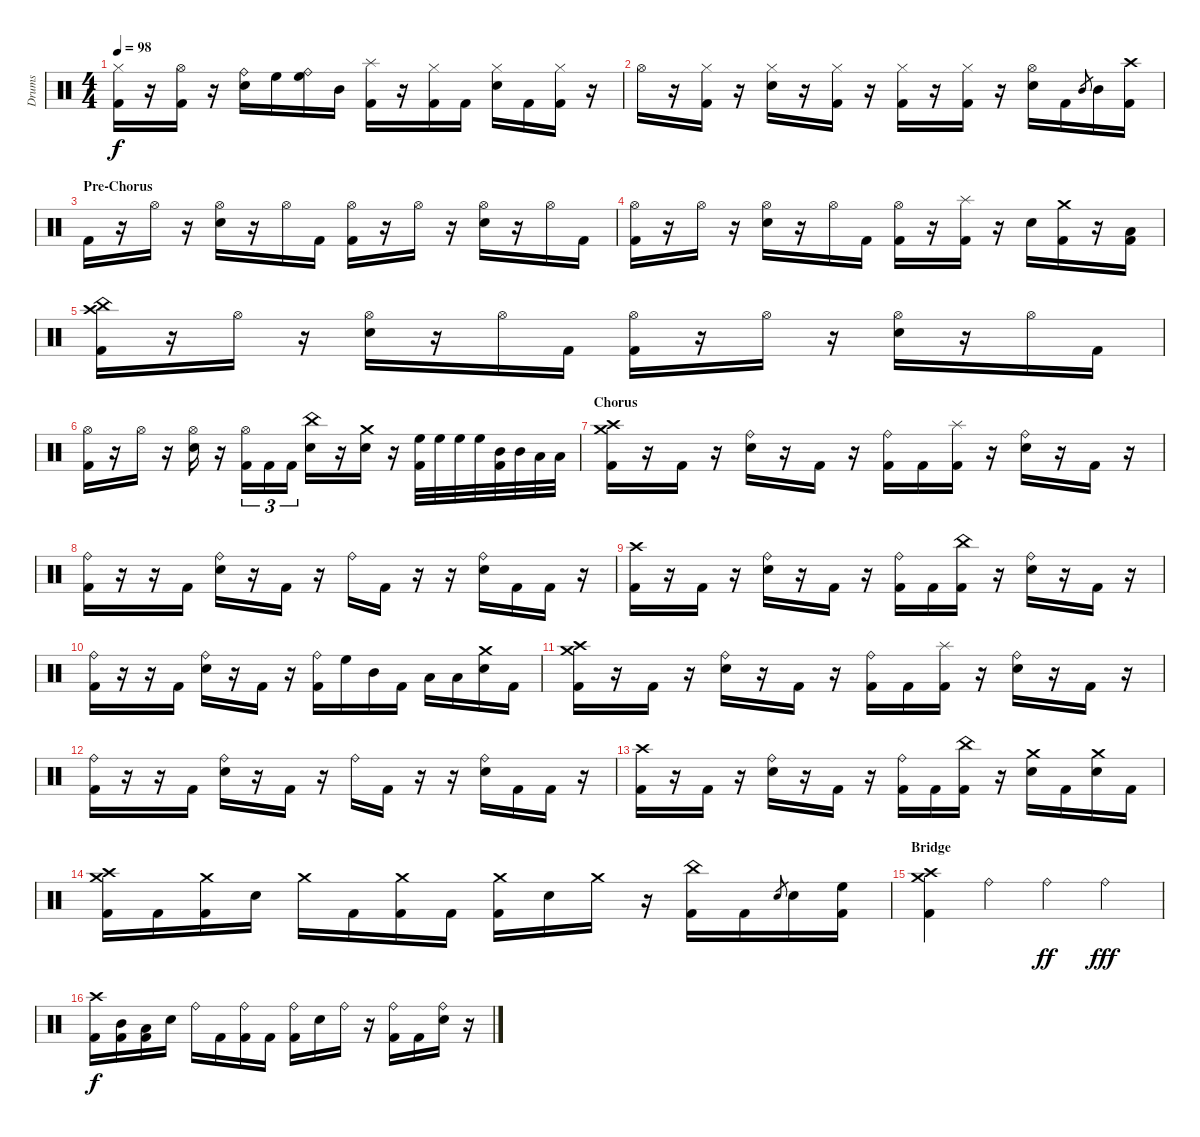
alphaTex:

\track ("Drums" "Drums") {instrument percussion}
\staff {score}
\articulation defaults
\ts (4 4)
\tempo 98
\clef neutral
\ks c
("Hi-Hat (closed)" "Kick (hit) 2").16{dy f} r.16 ("Hi-Hat (open)" "Kick (hit) 2").16 r.16 ("Ride (bell)" "Electric Snare (hit)").16 "High Floor Tom (hit)".16 ("Ride (bell)" "High Floor Tom (hit)").16 "Mid Tom (hit)".16 ("Splash (hit)" "Kick (hit) 2").16 r.16 ("Hi-Hat (closed)" "Kick (hit) 2").16 "Kick (hit) 2".16 ("Hi-Hat (closed)" "Electric Snare (hit)").16 "Kick (hit) 2".16 ("Hi-Hat (closed)" "Kick (hit) 2").16 r.16 |
"Hi-Hat (open)".16 r.16 ("Hi-Hat (closed)" "Kick (hit) 2").16 r.16 ("Hi-Hat (closed)" "Electric Snare (hit)").16 r.16 ("Hi-Hat (closed)" "Kick (hit) 2").16 r.16 ("Hi-Hat (closed)" "Kick (hit) 2").16 r.16 ("Hi-Hat (closed)" "Kick (hit) 2").16 r.16 ("Hi-Hat (open)" "Electric Snare (hit)").16 "Kick (hit) 2".16 "Mid Tom (hit)".8{gr} "Mid Tom (hit)".16 ("Crash high (hit)" "Kick (hit) 2").16 |
\section ("" "Pre-Chorus")
"Kick (hit) 2".16 r.16 "Hi-Hat (open)".16 r.16 ("Hi-Hat (open)" "Electric Snare (hit)").16 r.16 "Hi-Hat (open)".16 "Kick (hit) 2".16 ("Hi-Hat (open)" "Kick (hit) 2").16 r.16 "Hi-Hat (open)".16 r.16 ("Hi-Hat (open)" "Electric Snare (hit)").16 r.16 "Hi-Hat (open)".16 "Kick (hit) 2".16 |
("Hi-Hat (open)" "Kick (hit) 2").16 r.16 "Hi-Hat (open)".16 r.16 ("Hi-Hat (open)" "Electric Snare (hit)").16 r.16 "Hi-Hat (open)".16 "Kick (hit) 2".16 ("Hi-Hat (open)" "Kick (hit) 2").16 r.16 ("Splash (hit)" "Kick (hit) 2").16 r.16 "Electric Snare (hit)".16 ("Crash medium (hit)" "Kick (hit) 2").16 r.16 ("Low Floor Tom (hit)" "Kick (hit) 2").16 |
("Crash high (hit)" "China (hit)" "Kick (hit) 2").16 r.16 "Hi-Hat (open)".16 r.16 ("Hi-Hat (open)" "Electric Snare (hit)").16 r.16 "Hi-Hat (open)".16 "Kick (hit) 2".16 ("Hi-Hat (open)" "Kick (hit) 2").16 r.16 "Hi-Hat (open)".16 r.16 ("Hi-Hat (open)" "Electric Snare (hit)").16 r.16 "Hi-Hat (open)".16 "Kick (hit) 2".16 |
("Hi-Hat (open)" "Kick (hit) 2").16 r.16 "Hi-Hat (open)".16 r.16 ("Hi-Hat (open)" "Electric Snare (hit)").16 r.16 ("Hi-Hat (open)" "Kick (hit) 2").16{tu (3 2)} "Kick (hit) 2".16{tu (3 2)} "Kick (hit) 2".16{tu (3 2)} ("China (hit)" "Electric Snare (hit)").16 r.16 ("Crash medium (hit)" "Electric Snare (hit)").16 r.16 ("High Floor Tom (hit)" "Kick (hit) 2").32 "High Floor Tom (hit)".32 "High Floor Tom (hit)".32 "High Floor Tom (hit)".32 ("Mid Tom (hit)" "Kick (hit) 2").32 "Mid Tom (hit)".32 "Low Tom (hit)".32 "Low Tom (hit)".32 |
\section ("" "Chorus")
("Crash medium (hit)" "Crash high (hit)" "Kick (hit) 2").16 r.16 "Kick (hit) 2".16 r.16 ("Ride (bell)" "Electric Snare (hit)").16 r.16 "Kick (hit) 2".16 r.16 ("Ride (bell)" "Kick (hit) 2").16 "Kick (hit) 2".16 ("Splash (hit)" "Kick (hit) 2").16 r.16 ("Ride (bell)" "Electric Snare (hit)").16 r.16 "Kick (hit) 2".16 r.16 |
("Ride (bell)" "Kick (hit) 2").16 r.16 r.16 "Kick (hit) 2".16 ("Ride (bell)" "Electric Snare (hit)").16 r.16 "Kick (hit) 2".16 r.16 "Ride (bell)".16 "Kick (hit) 2".16 r.16 r.16 ("Ride (bell)" "Electric Snare (hit)").16 "Kick (hit) 2".16 "Kick (hit) 2".16 r.16 |
("Crash high (hit)" "Kick (hit) 2").16 r.16 "Kick (hit) 2".16 r.16 ("Ride (bell)" "Electric Snare (hit)").16 r.16 "Kick (hit) 2".16 r.16 ("Ride (bell)" "Kick (hit) 2").16 "Kick (hit) 2".16 ("China (hit)" "Kick (hit) 2").16 r.16 ("Ride (bell)" "Electric Snare (hit)").16 r.16 "Kick (hit) 2".16 r.16 |
("Ride (bell)" "Kick (hit) 2").16 r.16 r.16 "Kick (hit) 2".16 ("Ride (bell)" "Electric Snare (hit)").16 r.16 "Kick (hit) 2".16 r.16 ("Ride (bell)" "Kick (hit) 2").16 "High Floor Tom (hit)".16 "Mid Tom (hit)".16 "Kick (hit) 2".16 "Low Tom (hit)".16 "Low Tom (hit)".16 ("Crash medium (hit)" "Electric Snare (hit)").16 "Kick (hit) 2".16 |
("Crash medium (hit)" "Crash high (hit)" "Kick (hit) 2").16 r.16 "Kick (hit) 2".16 r.16 ("Ride (bell)" "Electric Snare (hit)").16 r.16 "Kick (hit) 2".16 r.16 ("Ride (bell)" "Kick (hit) 2").16 "Kick (hit) 2".16 ("Splash (hit)" "Kick (hit) 2").16 r.16 ("Ride (bell)" "Electric Snare (hit)").16 r.16 "Kick (hit) 2".16 r.16 |
("Ride (bell)" "Kick (hit) 2").16 r.16 r.16 "Kick (hit) 2".16 ("Ride (bell)" "Electric Snare (hit)").16 r.16 "Kick (hit) 2".16 r.16 "Ride (bell)".16 "Kick (hit) 2".16 r.16 r.16 ("Ride (bell)" "Electric Snare (hit)").16 "Kick (hit) 2".16 "Kick (hit) 2".16 r.16 |
("Crash high (hit)" "Kick (hit) 2").16 r.16 "Kick (hit) 2".16 r.16 ("Ride (bell)" "Electric Snare (hit)").16 r.16 "Kick (hit) 2".16 r.16 ("Ride (bell)" "Kick (hit) 2").16 "Kick (hit) 2".16 ("China (hit)" "Kick (hit) 2").16 r.16 ("Crash medium (hit)" "Electric Snare (hit)").16 "Kick (hit) 2".16 ("Crash medium (hit)" "Electric Snare (hit)").16 "Kick (hit) 2".16 |
("Crash medium (hit)" "Crash high (hit)" "Kick (hit) 2").16 "Kick (hit) 2".16 ("Crash medium (hit)" "Kick (hit) 2").16 "Electric Snare (hit)".16 "Crash medium (hit)".16 "Kick (hit) 2".16 ("Crash medium (hit)" "Kick (hit) 2").16 "Kick (hit) 2".16 ("Crash medium (hit)" "Kick (hit) 2").16 "Electric Snare (hit)".16 "Crash medium (hit)".16 r.16 ("China (hit)" "Kick (hit) 2").16 "Kick (hit) 2".16 "Electric Snare (hit)".8{gr} "Electric Snare (hit)".16 ("High Floor Tom (hit)" "Kick (hit) 2").16 |
\section ("" "Bridge")
("Crash medium (hit)" "Crash high (hit)" "Kick (hit) 2").4 "Ride (bell)".4 "Ride (bell)".4{dy ff} "Ride (bell)".4{dy fff} |
("Crash high (hit)" "Kick (hit) 2").16{dy f} ("Mid Tom (hit)" "Kick (hit) 2").16 ("Low Tom (hit)" "Kick (hit) 2").16 "Electric Snare (hit)".16 "Ride (bell)".16 "Kick (hit) 2".16 ("Ride (bell)" "Kick (hit) 2").16 "Kick (hit) 2".16 ("Ride (bell)" "Kick (hit) 2").16 "Electric Snare (hit)".16 "Ride (bell)".16 r.16 ("Ride (bell)" "Kick (hit) 2").16 "Kick (hit) 2".16 ("Ride (bell)" "Electric Snare (hit)").16 r.16
